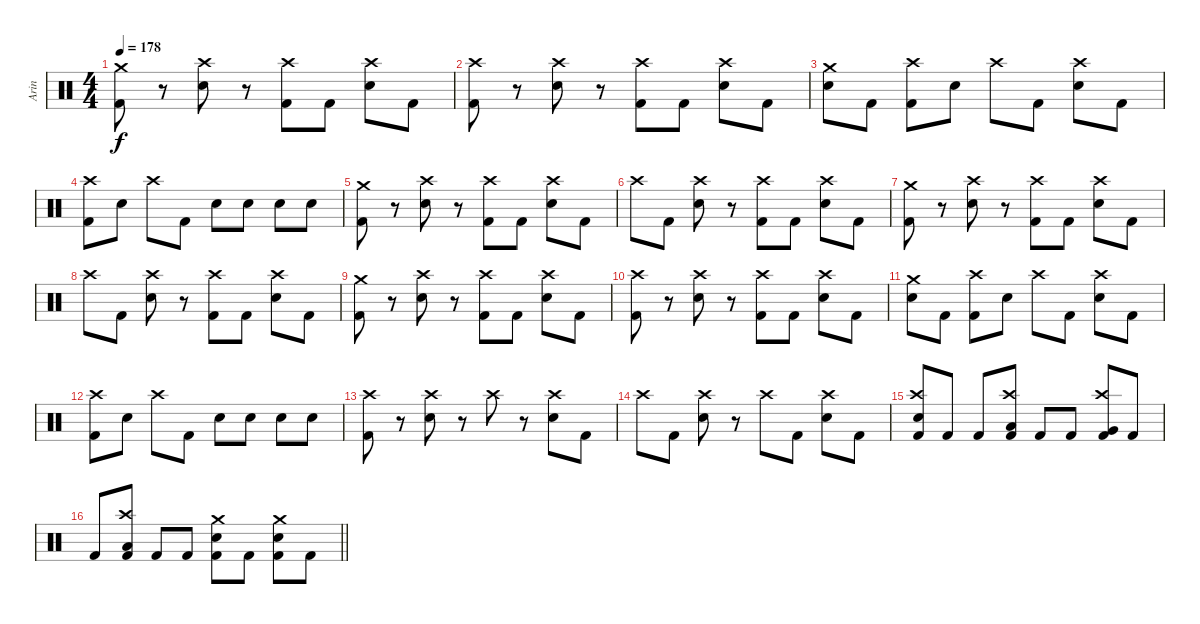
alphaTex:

\track ("Arin" "Arin") {instrument percussion}
\staff {score}
\articulation defaults
\ts (4 4)
\tempo 178
\clef neutral
\ks c
("Crash medium (hit)" "Kick (hit) 2").8{dy f} r.8 ("Crash high (hit)" "Snare (hit) 2").8 r.8 ("Crash high (hit)" "Kick (hit) 2").8 "Kick (hit) 2".8 ("Crash high (hit)" "Snare (hit) 2").8 "Kick (hit) 2".8 |
("Crash high (hit)" "Kick (hit) 2").8 r.8 ("Crash high (hit)" "Snare (hit) 2").8 r.8 ("Crash high (hit)" "Kick (hit) 2").8 "Kick (hit) 2".8 ("Crash high (hit)" "Snare (hit) 2").8 "Kick (hit) 2".8 |
("Crash medium (hit)" "Snare (hit) 2").8 "Kick (hit) 2".8 ("Crash high (hit)" "Kick (hit) 2").8 "Snare (hit) 2".8 "Crash high (hit)".8 "Kick (hit) 2".8 ("Crash high (hit)" "Snare (hit) 2").8 "Kick (hit) 2".8 |
("Crash high (hit)" "Kick (hit) 2").8 "Snare (hit) 2".8 "Crash high (hit)".8 "Kick (hit) 2".8 "Snare (hit) 2".8 "Snare (hit) 2".8 "Snare (hit) 2".8 "Snare (hit) 2".8 |
("Crash medium (hit)" "Kick (hit) 2").8 r.8 ("Crash high (hit)" "Snare (hit) 2").8 r.8 ("Crash high (hit)" "Kick (hit) 2").8 "Kick (hit) 2".8 ("Crash high (hit)" "Snare (hit) 2").8 "Kick (hit) 2".8 |
"Crash high (hit)".8 "Kick (hit) 2".8 ("Crash high (hit)" "Snare (hit) 2").8 r.8 ("Crash high (hit)" "Kick (hit) 2").8 "Kick (hit) 2".8 ("Crash high (hit)" "Snare (hit) 2").8 "Kick (hit) 2".8 |
("Crash medium (hit)" "Kick (hit) 2").8 r.8 ("Crash high (hit)" "Snare (hit) 2").8 r.8 ("Crash high (hit)" "Kick (hit) 2").8 "Kick (hit) 2".8 ("Crash high (hit)" "Snare (hit) 2").8 "Kick (hit) 2".8 |
"Crash high (hit)".8 "Kick (hit) 2".8 ("Crash high (hit)" "Snare (hit) 2").8 r.8 ("Crash high (hit)" "Kick (hit) 2").8 "Kick (hit) 2".8 ("Crash high (hit)" "Snare (hit) 2").8 "Kick (hit) 2".8 |
("Crash medium (hit)" "Kick (hit) 2").8 r.8 ("Crash high (hit)" "Snare (hit) 2").8 r.8 ("Crash high (hit)" "Kick (hit) 2").8 "Kick (hit) 2".8 ("Crash high (hit)" "Snare (hit) 2").8 "Kick (hit) 2".8 |
("Crash high (hit)" "Kick (hit) 2").8 r.8 ("Crash high (hit)" "Snare (hit) 2").8 r.8 ("Crash high (hit)" "Kick (hit) 2").8 "Kick (hit) 2".8 ("Crash high (hit)" "Snare (hit) 2").8 "Kick (hit) 2".8 |
("Crash medium (hit)" "Snare (hit) 2").8 "Kick (hit) 2".8 ("Crash high (hit)" "Kick (hit) 2").8 "Snare (hit) 2".8 "Crash high (hit)".8 "Kick (hit) 2".8 ("Crash high (hit)" "Snare (hit) 2").8 "Kick (hit) 2".8 |
("Crash high (hit)" "Kick (hit) 2").8 "Snare (hit) 2".8 "Crash high (hit)".8 "Kick (hit) 2".8 "Snare (hit) 2".8 "Snare (hit) 2".8 "Snare (hit) 2".8 "Snare (hit) 2".8 |
("Crash high (hit)" "Kick (hit) 2").8 r.8 ("Crash high (hit)" "Snare (hit) 2").8 r.8 "Crash high (hit)".8 r.8 ("Crash high (hit)" "Snare (hit) 2").8 "Kick (hit) 2".8 |
"Crash high (hit)".8 "Kick (hit) 2".8 ("Crash high (hit)" "Snare (hit) 2").8 r.8 "Crash high (hit)".8 "Kick (hit) 2".8 ("Crash high (hit)" "Snare (hit) 2").8 "Kick (hit) 2".8 |
("Crash high (hit)" "Snare (hit) 2" "Kick (hit) 2").8 "Kick (hit) 2".8 "Kick (hit) 2".8 ("Crash high (hit)" "Low Tom (hit)" "Kick (hit) 2").8 "Kick (hit) 2".8 "Kick (hit) 2".8 ("Crash high (hit)" "Very Low Tom (hit)" "Kick (hit) 2").8 "Kick (hit) 2".8 |
\barLineRight lightlight "Kick (hit) 2".8
("Crash high (hit)" "Low Floor Tom (hit)" "Kick (hit) 2").8 "Kick (hit) 2".8 "Kick (hit) 2".8 ("Crash medium (hit)" "Snare (hit) 2" "Kick (hit) 2").8 "Kick (hit) 2".8 ("Crash medium (hit)" "Snare (hit) 2" "Kick (hit) 2").8 "Kick (hit) 2".8
